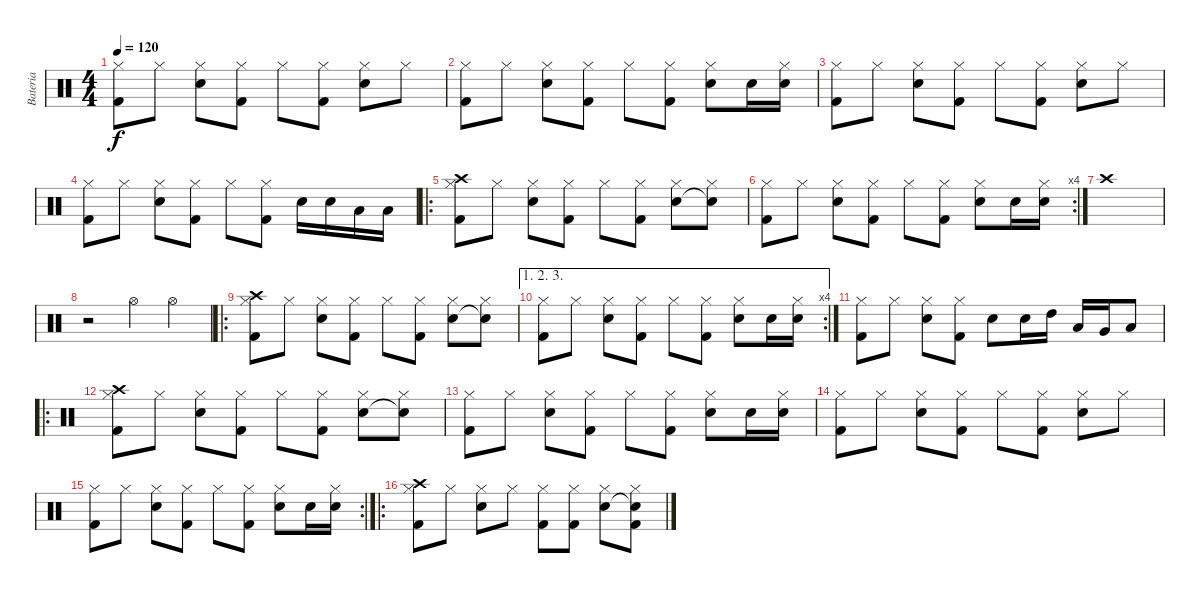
\track ("Bateria" "Bateria") {instrument percussion}
\staff {score}
\articulation defaults
\ts (4 4)
\tempo 120
\clef neutral
\ks c
("Hi-Hat (closed)" "Kick (hit) 2").8{dy f} "Hi-Hat (closed)".8 ("Hi-Hat (closed)" "Snare (hit) 2").8 ("Hi-Hat (closed)" "Kick (hit) 2").8 "Hi-Hat (closed)".8 ("Hi-Hat (closed)" "Kick (hit) 2").8 ("Hi-Hat (closed)" "Snare (hit) 2").8 "Hi-Hat (closed)".8 |
("Hi-Hat (closed)" "Kick (hit) 2").8 "Hi-Hat (closed)".8 ("Hi-Hat (closed)" "Snare (hit) 2").8 ("Hi-Hat (closed)" "Kick (hit) 2").8 "Hi-Hat (closed)".8 ("Hi-Hat (closed)" "Kick (hit) 2").8 ("Hi-Hat (closed)" "Snare (hit) 2").8 "Snare (hit) 2".16 ("Hi-Hat (closed)" "Snare (hit) 2").16 |
("Hi-Hat (closed)" "Kick (hit) 2").8 "Hi-Hat (closed)".8 ("Hi-Hat (closed)" "Snare (hit) 2").8 ("Hi-Hat (closed)" "Kick (hit) 2").8 "Hi-Hat (closed)".8 ("Hi-Hat (closed)" "Kick (hit) 2").8 ("Hi-Hat (closed)" "Snare (hit) 2").8 "Hi-Hat (closed)".8 |
("Hi-Hat (closed)" "Kick (hit) 2").8 "Hi-Hat (closed)".8 ("Hi-Hat (closed)" "Snare (hit) 2").8 ("Hi-Hat (closed)" "Kick (hit) 2").8 "Hi-Hat (closed)".8 ("Hi-Hat (closed)" "Kick (hit) 2").8 "Snare (hit) 2".16 "Snare (hit) 2".16 "Low Tom (hit)".16 "Low Tom (hit)".16 |
\ro
("Hi-Hat (closed)" "Crash high (hit)" "Kick (hit) 2").8 "Hi-Hat (closed)".8 ("Hi-Hat (closed)" "Snare (hit) 2").8 ("Hi-Hat (closed)" "Kick (hit) 2").8 "Hi-Hat (closed)".8 ("Hi-Hat (closed)" "Kick (hit) 2").8 ("Hi-Hat (closed)" "Snare (hit) 2").8 ("Hi-Hat (closed)" "Snare (hit)"{t}).8 |
\rc 4
("Hi-Hat (closed)" "Kick (hit) 2").8 "Hi-Hat (closed)".8 ("Hi-Hat (closed)" "Snare (hit) 2").8 ("Hi-Hat (closed)" "Kick (hit) 2").8 "Hi-Hat (closed)".8 ("Hi-Hat (closed)" "Kick (hit) 2").8 ("Hi-Hat (closed)" "Snare (hit) 2").8 "Snare (hit) 2".16 ("Hi-Hat (closed)" "Snare (hit) 2").16 |
"Crash high (hit)".1 |
r.2 "Hi-Hat (open)".4 "Hi-Hat (open)".4 |
\ro
("Hi-Hat (closed)" "Crash high (hit)" "Kick (hit) 2").8 "Hi-Hat (closed)".8 ("Hi-Hat (closed)" "Snare (hit) 2").8 ("Hi-Hat (closed)" "Kick (hit) 2").8 "Hi-Hat (closed)".8 ("Hi-Hat (closed)" "Kick (hit) 2").8 ("Hi-Hat (closed)" "Snare (hit) 2").8 ("Hi-Hat (closed)" "Snare (hit)"{t}).8 |
\ae (1 2 3)
\rc 4
("Hi-Hat (closed)" "Kick (hit) 2").8 "Hi-Hat (closed)".8 ("Hi-Hat (closed)" "Snare (hit) 2").8 ("Hi-Hat (closed)" "Kick (hit) 2").8 "Hi-Hat (closed)".8 ("Hi-Hat (closed)" "Kick (hit) 2").8 ("Hi-Hat (closed)" "Snare (hit) 2").8 "Snare (hit) 2".16 ("Hi-Hat (closed)" "Snare (hit) 2").16 |
("Hi-Hat (closed)" "Kick (hit) 2").8 "Hi-Hat (closed)".8 ("Hi-Hat (closed)" "Snare (hit) 2").8 ("Hi-Hat (closed)" "Kick (hit) 2").8 "Snare (hit) 2".8 "Snare (hit) 2".16 "High Tom (hit)".16 "Low Tom (hit)".16 "Very Low Tom (hit)".16 "Low Floor Tom (hit)".8 |
\ro
("Hi-Hat (closed)" "Crash high (hit)" "Kick (hit) 2").8 "Hi-Hat (closed)".8 ("Hi-Hat (closed)" "Snare (hit) 2").8 ("Hi-Hat (closed)" "Kick (hit) 2").8 "Hi-Hat (closed)".8 ("Hi-Hat (closed)" "Kick (hit) 2").8 ("Hi-Hat (closed)" "Snare (hit) 2").8 ("Hi-Hat (closed)" "Snare (hit)"{t}).8 |
("Hi-Hat (closed)" "Kick (hit) 2").8 "Hi-Hat (closed)".8 ("Hi-Hat (closed)" "Snare (hit) 2").8 ("Hi-Hat (closed)" "Kick (hit) 2").8 "Hi-Hat (closed)".8 ("Hi-Hat (closed)" "Kick (hit) 2").8 ("Hi-Hat (closed)" "Snare (hit) 2").8 "Snare (hit) 2".16 ("Hi-Hat (closed)" "Snare (hit) 2").16 |
("Hi-Hat (closed)" "Kick (hit) 2").8 "Hi-Hat (closed)".8 ("Hi-Hat (closed)" "Snare (hit) 2").8 ("Hi-Hat (closed)" "Kick (hit) 2").8 "Hi-Hat (closed)".8 ("Hi-Hat (closed)" "Kick (hit) 2").8 ("Hi-Hat (closed)" "Snare (hit) 2").8 "Hi-Hat (closed)".8 |
\rc 2
("Hi-Hat (closed)" "Kick (hit) 2").8 "Hi-Hat (closed)".8 ("Hi-Hat (closed)" "Snare (hit) 2").8 ("Hi-Hat (closed)" "Kick (hit) 2").8 "Hi-Hat (closed)".8 ("Hi-Hat (closed)" "Kick (hit) 2").8 ("Hi-Hat (closed)" "Snare (hit) 2").8 "Snare (hit) 2".16 ("Hi-Hat (closed)" "Snare (hit) 2").16 |
\ro
("Hi-Hat (closed)" "Crash high (hit)" "Kick (hit) 2").8 "Hi-Hat (closed)".8 ("Hi-Hat (closed)" "Snare (hit) 2").8 "Hi-Hat (closed)".8 ("Hi-Hat (closed)" "Kick (hit) 2").8 ("Hi-Hat (closed)" "Kick (hit) 2").8 ("Hi-Hat (closed)" "Snare (hit) 2").8 ("Hi-Hat (closed)" "Snare (hit)"{t} "Kick (hit) 2").8
